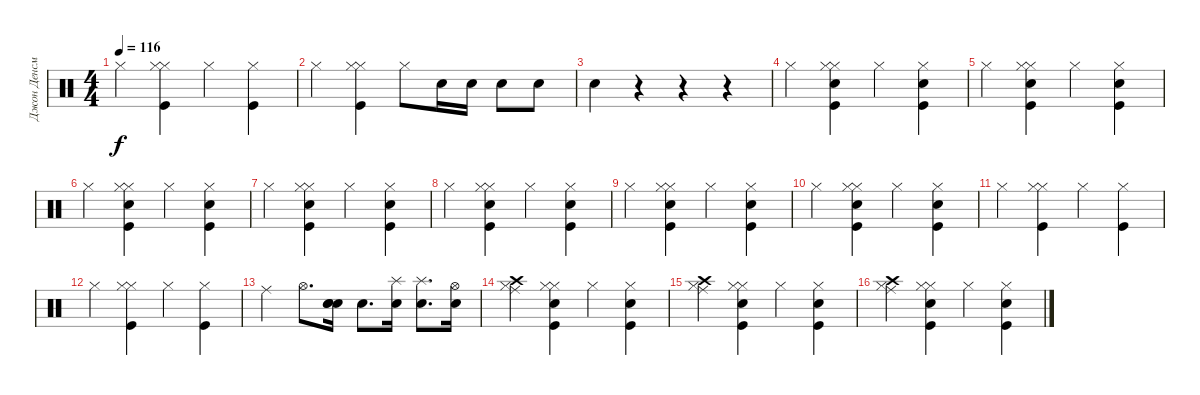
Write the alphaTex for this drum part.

\track ("Джон Денсмор" "Джон Денсм") {instrument percussion}
\staff {score}
\articulation defaults
\ts (4 4)
\tempo 116
\clef neutral
\ks c "Hi-Hat (closed)".4{dy f}
("Hi-Hat (closed)" "Hi-Hat (closed)" "Kick (hit)").4 "Hi-Hat (closed)".4 ("Hi-Hat (closed)" "Kick (hit)").4 |
"Hi-Hat (closed)".4 ("Hi-Hat (closed)" "Hi-Hat (closed)" "Kick (hit)").4 "Hi-Hat (closed)".8 "Snare (hit) 2".16 "Snare (hit) 2".16 "Snare (hit) 2".8 "Snare (hit) 2".8 |
"Snare (hit) 2".4 r.4 r.4 r.4 |
"Hi-Hat (closed)".4 ("Hi-Hat (closed)" "Hi-Hat (closed)" "Kick (hit)" "Snare (hit) 2").4 "Hi-Hat (closed)".4 ("Hi-Hat (closed)" "Snare (hit) 2" "Kick (hit)").4 |
"Hi-Hat (closed)".4 ("Hi-Hat (closed)" "Hi-Hat (closed)" "Kick (hit)" "Snare (hit) 2").4 "Hi-Hat (closed)".4 ("Hi-Hat (closed)" "Snare (hit) 2" "Kick (hit)").4 |
"Hi-Hat (closed)".4 ("Hi-Hat (closed)" "Hi-Hat (closed)" "Kick (hit)" "Snare (hit) 2").4 "Hi-Hat (closed)".4 ("Hi-Hat (closed)" "Snare (hit) 2" "Kick (hit)").4 |
"Hi-Hat (closed)".4 ("Hi-Hat (closed)" "Hi-Hat (closed)" "Kick (hit)" "Snare (hit) 2").4 "Hi-Hat (closed)".4 ("Hi-Hat (closed)" "Snare (hit) 2" "Kick (hit)").4 |
"Hi-Hat (closed)".4 ("Hi-Hat (closed)" "Hi-Hat (closed)" "Kick (hit)" "Snare (hit) 2").4 "Hi-Hat (closed)".4 ("Hi-Hat (closed)" "Snare (hit) 2" "Kick (hit)").4 |
"Hi-Hat (closed)".4 ("Hi-Hat (closed)" "Hi-Hat (closed)" "Kick (hit)" "Snare (hit) 2").4 "Hi-Hat (closed)".4 ("Hi-Hat (closed)" "Snare (hit) 2" "Kick (hit)").4 |
"Hi-Hat (closed)".4 ("Hi-Hat (closed)" "Hi-Hat (closed)" "Kick (hit)" "Snare (hit) 2").4 "Hi-Hat (closed)".4 ("Hi-Hat (closed)" "Snare (hit) 2" "Kick (hit)").4 |
"Hi-Hat (closed)".4 ("Hi-Hat (closed)" "Hi-Hat (closed)" "Kick (hit)").4 "Hi-Hat (closed)".4 ("Hi-Hat (closed)" "Kick (hit)").4 |
"Hi-Hat (closed)".4 ("Hi-Hat (closed)" "Hi-Hat (closed)" "Kick (hit)").4 "Hi-Hat (closed)".4 ("Hi-Hat (closed)" "Kick (hit)").4 |
"Ride (middle)".4 "Hi-Hat (open)".8{d} ("Snare (hit) 2" "Snare (hit) 2" "Snare (hit) 2").16 "Snare (hit) 2".8{d} ("Splash (hit)" "Snare (hit) 2").16 ("Splash (hit)" "Snare (hit) 2").8{d} ("Hi-Hat (open)" "Snare (hit) 2").16 |
("Hi-Hat (closed)" "Ride (middle)" "Crash high (hit)").4 ("Hi-Hat (closed)" "Hi-Hat (closed)" "Kick (hit)" "Snare (hit) 2").4 "Hi-Hat (closed)".4 ("Hi-Hat (closed)" "Snare (hit) 2" "Kick (hit)").4 |
("Hi-Hat (closed)" "Ride (middle)" "Crash high (hit)").4 ("Hi-Hat (closed)" "Hi-Hat (closed)" "Kick (hit)" "Snare (hit) 2").4 "Hi-Hat (closed)".4 ("Hi-Hat (closed)" "Snare (hit) 2" "Kick (hit)").4 |
("Hi-Hat (closed)" "Ride (middle)" "Crash high (hit)").4 ("Hi-Hat (closed)" "Hi-Hat (closed)" "Kick (hit)" "Snare (hit) 2").4 "Hi-Hat (closed)".4 ("Hi-Hat (closed)" "Snare (hit) 2" "Kick (hit)").4
